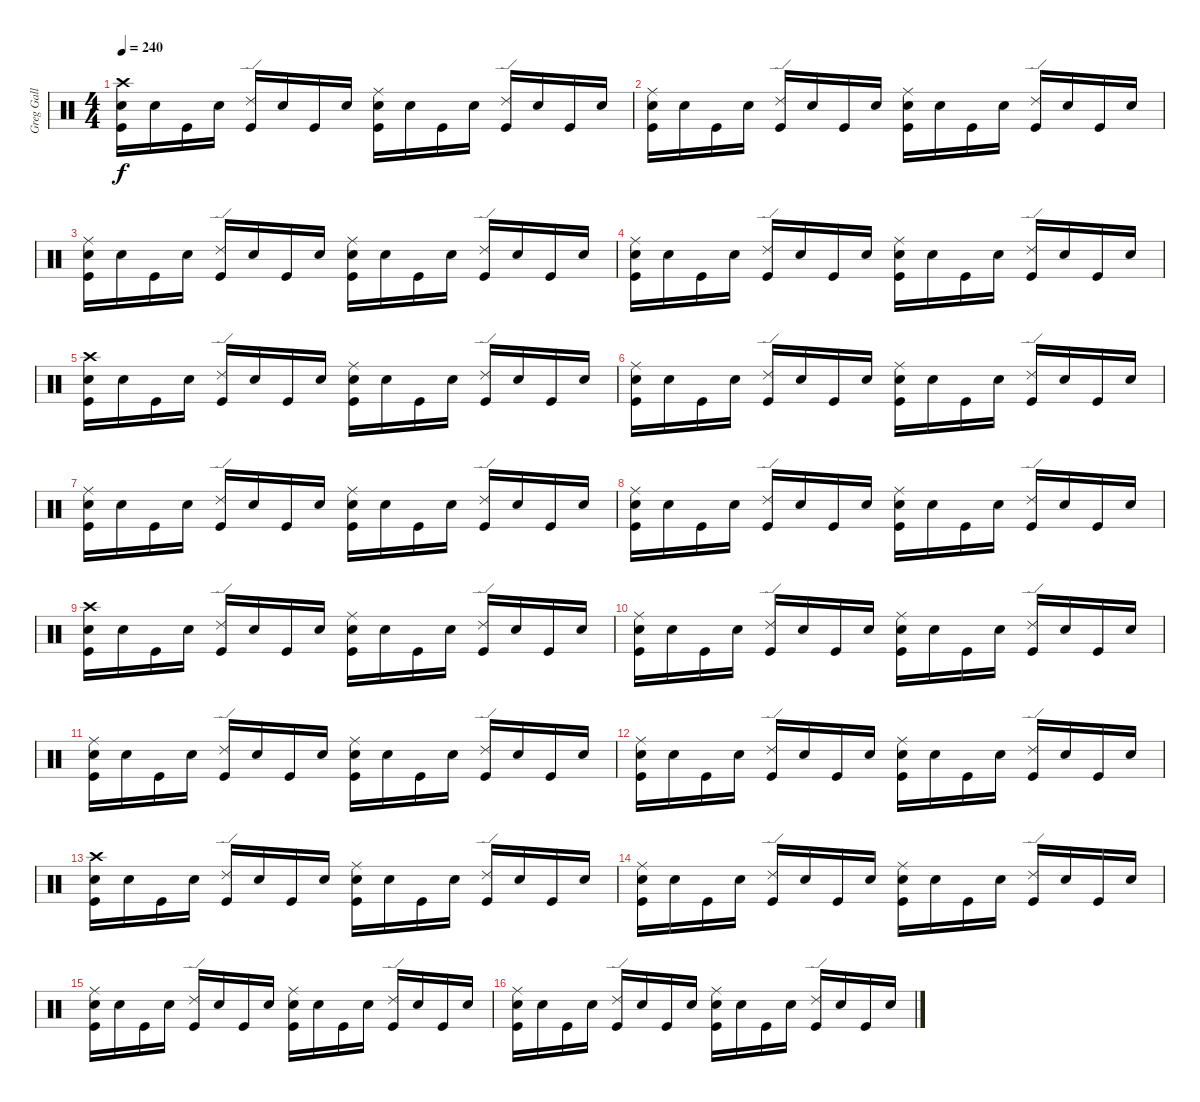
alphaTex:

\track ("Greg Gall - Drums" "Greg Gall ") {instrument percussion}
\staff {score}
\articulation defaults
\ts (4 4)
\tempo 240
\clef neutral
\ks c
("Crash high (hit)" "Electric Snare (hit)" "Kick (hit)").16{dy f} "Snare (hit)".16 "Kick (hit)".16 "Snare (hit)".16 ("Ride (edge) 2" "Kick (hit)").16 "Snare (hit)".16 "Kick (hit)".16 "Snare (hit)".16 ("Ride (middle)" "Electric Snare (hit)" "Kick (hit)").16 "Snare (hit)".16 "Kick (hit)".16 "Snare (hit)".16 ("Ride (edge) 2" "Kick (hit)").16 "Snare (hit)".16 "Kick (hit)".16 "Snare (hit)".16 |
("Ride (middle)" "Electric Snare (hit)" "Kick (hit)").16 "Snare (hit)".16 "Kick (hit)".16 "Snare (hit)".16 ("Ride (edge) 2" "Kick (hit)").16 "Snare (hit)".16 "Kick (hit)".16 "Snare (hit)".16 ("Ride (middle)" "Electric Snare (hit)" "Kick (hit)").16 "Snare (hit)".16 "Kick (hit)".16 "Snare (hit)".16 ("Ride (edge) 2" "Kick (hit)").16 "Snare (hit)".16 "Kick (hit)".16 "Snare (hit)".16 |
("Ride (middle)" "Electric Snare (hit)" "Kick (hit)").16 "Snare (hit)".16 "Kick (hit)".16 "Snare (hit)".16 ("Ride (edge) 2" "Kick (hit)").16 "Snare (hit)".16 "Kick (hit)".16 "Snare (hit)".16 ("Ride (middle)" "Electric Snare (hit)" "Kick (hit)").16 "Snare (hit)".16 "Kick (hit)".16 "Snare (hit)".16 ("Ride (edge) 2" "Kick (hit)").16 "Snare (hit)".16 "Kick (hit)".16 "Snare (hit)".16 |
("Ride (middle)" "Electric Snare (hit)" "Kick (hit)").16 "Snare (hit)".16 "Kick (hit)".16 "Snare (hit)".16 ("Ride (edge) 2" "Kick (hit)").16 "Snare (hit)".16 "Kick (hit)".16 "Snare (hit)".16 ("Ride (middle)" "Electric Snare (hit)" "Kick (hit)").16 "Snare (hit)".16 "Kick (hit)".16 "Snare (hit)".16 ("Ride (edge) 2" "Kick (hit)").16 "Snare (hit)".16 "Kick (hit)".16 "Snare (hit)".16 |
("Crash high (hit)" "Electric Snare (hit)" "Kick (hit)").16{volume 16 balance 8} "Snare (hit)".16 "Kick (hit)".16 "Snare (hit)".16 ("Ride (edge) 2" "Kick (hit)").16 "Snare (hit)".16 "Kick (hit)".16 "Snare (hit)".16 ("Ride (middle)" "Electric Snare (hit)" "Kick (hit)").16 "Snare (hit)".16 "Kick (hit)".16 "Snare (hit)".16 ("Ride (edge) 2" "Kick (hit)").16 "Snare (hit)".16 "Kick (hit)".16 "Snare (hit)".16 |
("Ride (middle)" "Electric Snare (hit)" "Kick (hit)").16 "Snare (hit)".16 "Kick (hit)".16 "Snare (hit)".16 ("Ride (edge) 2" "Kick (hit)").16 "Snare (hit)".16 "Kick (hit)".16 "Snare (hit)".16 ("Ride (middle)" "Electric Snare (hit)" "Kick (hit)").16 "Snare (hit)".16 "Kick (hit)".16 "Snare (hit)".16 ("Ride (edge) 2" "Kick (hit)").16 "Snare (hit)".16 "Kick (hit)".16 "Snare (hit)".16 |
("Ride (middle)" "Electric Snare (hit)" "Kick (hit)").16 "Snare (hit)".16 "Kick (hit)".16 "Snare (hit)".16 ("Ride (edge) 2" "Kick (hit)").16 "Snare (hit)".16 "Kick (hit)".16 "Snare (hit)".16 ("Ride (middle)" "Electric Snare (hit)" "Kick (hit)").16 "Snare (hit)".16 "Kick (hit)".16 "Snare (hit)".16 ("Ride (edge) 2" "Kick (hit)").16 "Snare (hit)".16 "Kick (hit)".16 "Snare (hit)".16 |
("Ride (middle)" "Electric Snare (hit)" "Kick (hit)").16 "Snare (hit)".16 "Kick (hit)".16 "Snare (hit)".16 ("Ride (edge) 2" "Kick (hit)").16 "Snare (hit)".16 "Kick (hit)".16 "Snare (hit)".16 ("Ride (middle)" "Electric Snare (hit)" "Kick (hit)").16 "Snare (hit)".16 "Kick (hit)".16 "Snare (hit)".16 ("Ride (edge) 2" "Kick (hit)").16 "Snare (hit)".16 "Kick (hit)".16 "Snare (hit)".16 |
("Crash high (hit)" "Electric Snare (hit)" "Kick (hit)").16{volume 16 balance 8} "Snare (hit)".16 "Kick (hit)".16 "Snare (hit)".16 ("Ride (edge) 2" "Kick (hit)").16 "Snare (hit)".16 "Kick (hit)".16 "Snare (hit)".16 ("Ride (middle)" "Electric Snare (hit)" "Kick (hit)").16 "Snare (hit)".16 "Kick (hit)".16 "Snare (hit)".16 ("Ride (edge) 2" "Kick (hit)").16 "Snare (hit)".16 "Kick (hit)".16 "Snare (hit)".16 |
("Ride (middle)" "Electric Snare (hit)" "Kick (hit)").16 "Snare (hit)".16 "Kick (hit)".16 "Snare (hit)".16 ("Ride (edge) 2" "Kick (hit)").16 "Snare (hit)".16 "Kick (hit)".16 "Snare (hit)".16 ("Ride (middle)" "Electric Snare (hit)" "Kick (hit)").16 "Snare (hit)".16 "Kick (hit)".16 "Snare (hit)".16 ("Ride (edge) 2" "Kick (hit)").16 "Snare (hit)".16 "Kick (hit)".16 "Snare (hit)".16 |
("Ride (middle)" "Electric Snare (hit)" "Kick (hit)").16 "Snare (hit)".16 "Kick (hit)".16 "Snare (hit)".16 ("Ride (edge) 2" "Kick (hit)").16 "Snare (hit)".16 "Kick (hit)".16 "Snare (hit)".16 ("Ride (middle)" "Electric Snare (hit)" "Kick (hit)").16 "Snare (hit)".16 "Kick (hit)".16 "Snare (hit)".16 ("Ride (edge) 2" "Kick (hit)").16 "Snare (hit)".16 "Kick (hit)".16 "Snare (hit)".16 |
("Ride (middle)" "Electric Snare (hit)" "Kick (hit)").16 "Snare (hit)".16 "Kick (hit)".16 "Snare (hit)".16 ("Ride (edge) 2" "Kick (hit)").16 "Snare (hit)".16 "Kick (hit)".16 "Snare (hit)".16 ("Ride (middle)" "Electric Snare (hit)" "Kick (hit)").16 "Snare (hit)".16 "Kick (hit)".16 "Snare (hit)".16 ("Ride (edge) 2" "Kick (hit)").16 "Snare (hit)".16 "Kick (hit)".16 "Snare (hit)".16 |
("Crash high (hit)" "Electric Snare (hit)" "Kick (hit)").16{volume 16 balance 8} "Snare (hit)".16 "Kick (hit)".16 "Snare (hit)".16 ("Ride (edge) 2" "Kick (hit)").16 "Snare (hit)".16 "Kick (hit)".16 "Snare (hit)".16 ("Ride (middle)" "Electric Snare (hit)" "Kick (hit)").16 "Snare (hit)".16 "Kick (hit)".16 "Snare (hit)".16 ("Ride (edge) 2" "Kick (hit)").16 "Snare (hit)".16 "Kick (hit)".16 "Snare (hit)".16 |
("Ride (middle)" "Electric Snare (hit)" "Kick (hit)").16 "Snare (hit)".16 "Kick (hit)".16 "Snare (hit)".16 ("Ride (edge) 2" "Kick (hit)").16 "Snare (hit)".16 "Kick (hit)".16 "Snare (hit)".16 ("Ride (middle)" "Electric Snare (hit)" "Kick (hit)").16 "Snare (hit)".16 "Kick (hit)".16 "Snare (hit)".16 ("Ride (edge) 2" "Kick (hit)").16 "Snare (hit)".16 "Kick (hit)".16 "Snare (hit)".16 |
("Ride (middle)" "Electric Snare (hit)" "Kick (hit)").16 "Snare (hit)".16 "Kick (hit)".16 "Snare (hit)".16 ("Ride (edge) 2" "Kick (hit)").16 "Snare (hit)".16 "Kick (hit)".16 "Snare (hit)".16 ("Ride (middle)" "Electric Snare (hit)" "Kick (hit)").16 "Snare (hit)".16 "Kick (hit)".16 "Snare (hit)".16 ("Ride (edge) 2" "Kick (hit)").16 "Snare (hit)".16 "Kick (hit)".16 "Snare (hit)".16 |
("Ride (middle)" "Electric Snare (hit)" "Kick (hit)").16 "Snare (hit)".16 "Kick (hit)".16 "Snare (hit)".16 ("Ride (edge) 2" "Kick (hit)").16 "Snare (hit)".16 "Kick (hit)".16 "Snare (hit)".16 ("Ride (middle)" "Electric Snare (hit)" "Kick (hit)").16 "Snare (hit)".16 "Kick (hit)".16 "Snare (hit)".16 ("Ride (edge) 2" "Kick (hit)").16 "Snare (hit)".16 "Kick (hit)".16 "Snare (hit)".16
